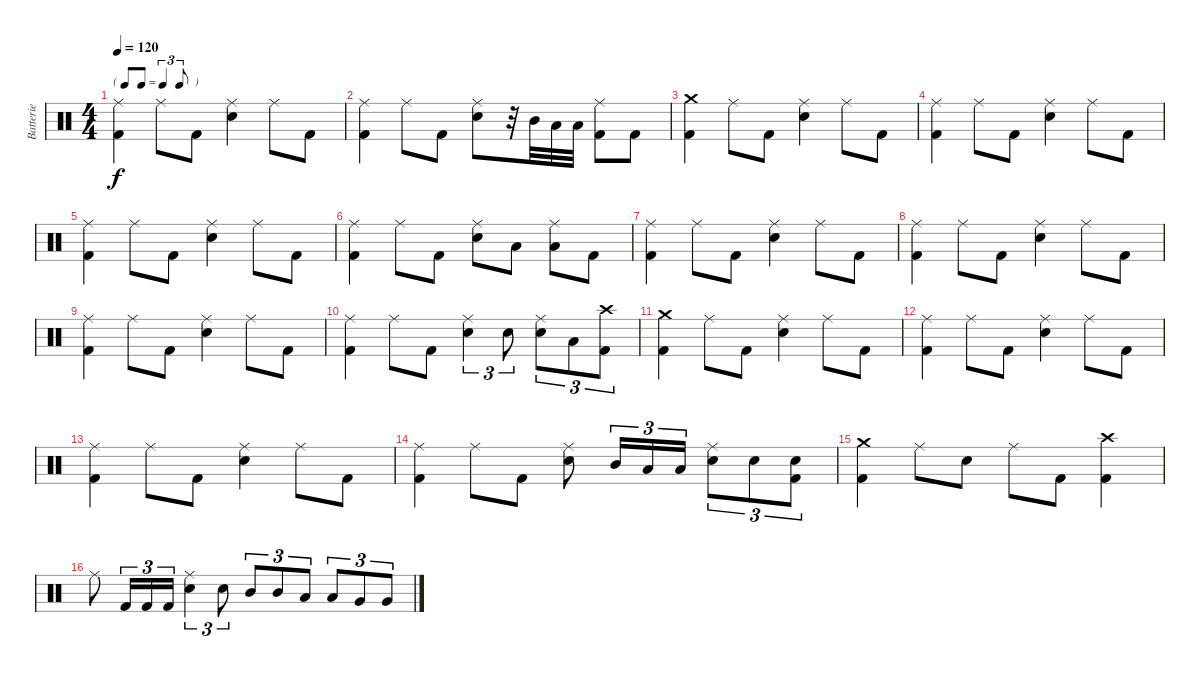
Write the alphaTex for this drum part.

\track ("Batterie" "Batterie") {instrument percussion}
\staff {score}
\articulation defaults
\ts (4 4)
\tf triplet8th
\tempo 120
\clef neutral
\ks c
("Ride (middle)" "Kick (hit) 2").4{dy f} "Ride (middle)".8 "Kick (hit) 2".8 ("Ride (middle)" "Electric Snare (hit)").4 "Ride (middle)".8 "Kick (hit) 2".8 |
("Ride (middle)" "Kick (hit) 2").4 "Ride (middle)".8 "Kick (hit) 2".8 ("Ride (middle)" "Electric Snare (hit)").8 r.32 "Mid Tom (hit)".32 "Low Tom (hit)".32 "Low Tom (hit)".32 ("Ride (middle)" "Kick (hit) 2").8 "Kick (hit) 2".8 |
("Crash medium (hit)" "Kick (hit) 2").4 "Ride (middle)".8 "Kick (hit) 2".8 ("Ride (middle)" "Electric Snare (hit)").4 "Ride (middle)".8 "Kick (hit) 2".8 |
("Ride (middle)" "Kick (hit) 2").4 "Ride (middle)".8 "Kick (hit) 2".8 ("Ride (middle)" "Electric Snare (hit)").4 "Ride (middle)".8 "Kick (hit) 2".8 |
("Ride (middle)" "Kick (hit) 2").4 "Ride (middle)".8 "Kick (hit) 2".8 ("Ride (middle)" "Electric Snare (hit)").4 "Ride (middle)".8 "Kick (hit) 2".8 |
("Ride (middle)" "Kick (hit) 2").4 "Ride (middle)".8 "Kick (hit) 2".8 ("Ride (middle)" "Electric Snare (hit)").8 "Low Tom (hit)".8 ("Ride (middle)" "Low Tom (hit)").8 "Kick (hit) 2".8 |
("Ride (middle)" "Kick (hit) 2").4 "Ride (middle)".8 "Kick (hit) 2".8 ("Ride (middle)" "Electric Snare (hit)").4 "Ride (middle)".8 "Kick (hit) 2".8 |
("Ride (middle)" "Kick (hit) 2").4 "Ride (middle)".8 "Kick (hit) 2".8 ("Ride (middle)" "Electric Snare (hit)").4 "Ride (middle)".8 "Kick (hit) 2".8 |
("Ride (middle)" "Kick (hit) 2").4 "Ride (middle)".8 "Kick (hit) 2".8 ("Ride (middle)" "Electric Snare (hit)").4 "Ride (middle)".8 "Kick (hit) 2".8 |
("Ride (middle)" "Kick (hit) 2").4 "Ride (middle)".8 "Kick (hit) 2".8 ("Ride (middle)" "Electric Snare (hit)").4{tu (3 2)} "Electric Snare (hit)".8{tu (3 2)} ("Ride (middle)" "Electric Snare (hit)").8{tu (3 2)} "Low Tom (hit)".8{tu (3 2)} ("Crash high (hit)" "Kick (hit) 2").8{tu (3 2)} |
("Crash medium (hit)" "Kick (hit) 2").4 "Ride (middle)".8 "Kick (hit) 2".8 ("Ride (middle)" "Electric Snare (hit)").4 "Ride (middle)".8 "Kick (hit) 2".8 |
("Ride (middle)" "Kick (hit) 2").4 "Ride (middle)".8 "Kick (hit) 2".8 ("Ride (middle)" "Electric Snare (hit)").4 "Ride (middle)".8 "Kick (hit) 2".8 |
("Ride (middle)" "Kick (hit) 2").4 "Ride (middle)".8 "Kick (hit) 2".8 ("Ride (middle)" "Electric Snare (hit)").4 "Ride (middle)".8 "Kick (hit) 2".8 |
("Ride (middle)" "Kick (hit) 2").4 "Ride (middle)".8 "Kick (hit) 2".8 ("Ride (middle)" "Electric Snare (hit)").8 "Mid Tom (hit)".16{tu (3 2)} "Low Tom (hit)".16{tu (3 2)} "Low Tom (hit)".16{tu (3 2)} ("Ride (middle)" "Electric Snare (hit)").8{tu (3 2)} "Electric Snare (hit)".8{tu (3 2)} ("Electric Snare (hit)" "Kick (hit) 2").8{tu (3 2)} |
("Crash medium (hit)" "Kick (hit) 2").4 "Ride (middle)".8 "Electric Snare (hit)".8 "Ride (middle)".8 "Kick (hit) 2".8 ("Crash high (hit)" "Kick (hit) 2").4 |
"Ride (middle)".8 "Kick (hit) 2".16{tu (3 2)} "Kick (hit) 2".16{tu (3 2)} "Kick (hit) 2".16{tu (3 2)} ("Ride (middle)" "Electric Snare (hit)").4{tu (3 2)} "Electric Snare (hit)".8{tu (3 2)} "Mid Tom (hit)".8{tu (3 2)} "Mid Tom (hit)".8{tu (3 2)} "Low Tom (hit)".8{tu (3 2)} "Low Tom (hit)".8{tu (3 2)} "Very Low Tom (hit)".8{tu (3 2)} "Very Low Tom (hit)".8{tu (3 2)}
